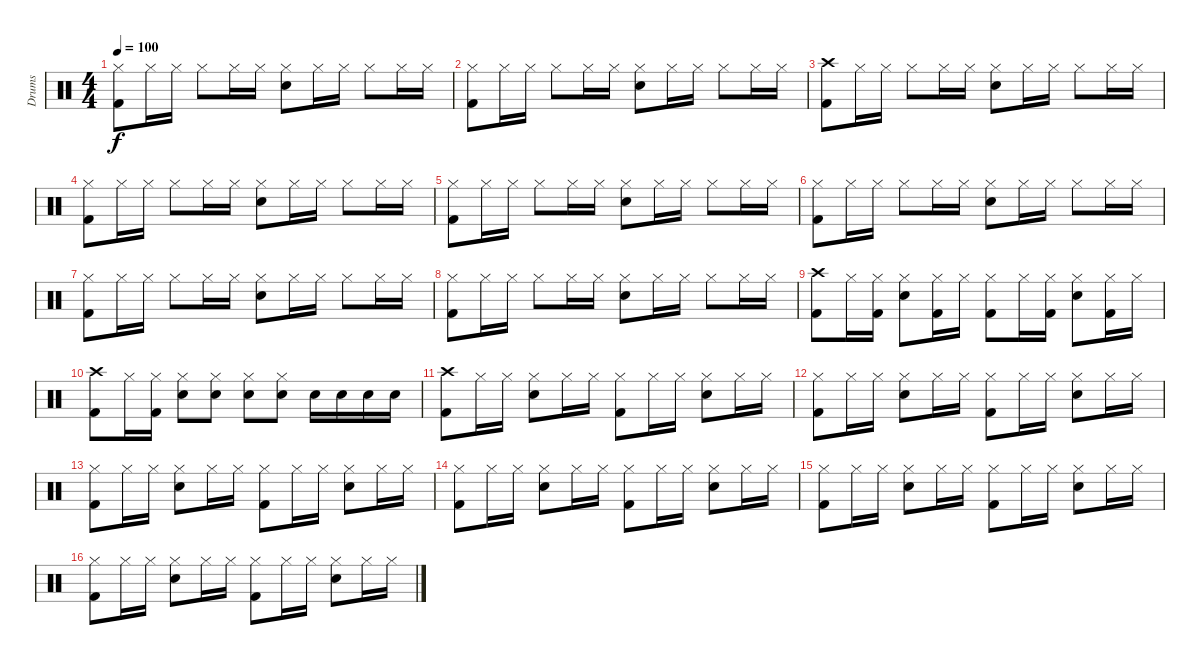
\track ("Drums" "Drums") {instrument percussion}
\staff {score}
\articulation defaults
\ts (4 4)
\tempo 100
\clef neutral
\ks c
("Hi-Hat (closed)" "Kick (hit) 2").8{dy f} "Hi-Hat (closed)".16 "Hi-Hat (closed)".16 "Hi-Hat (closed)".8 "Hi-Hat (closed)".16 "Hi-Hat (closed)".16 ("Hi-Hat (closed)" "Snare (hit) 2").8 "Hi-Hat (closed)".16 "Hi-Hat (closed)".16 "Hi-Hat (closed)".8 "Hi-Hat (closed)".16 "Hi-Hat (closed)".16 |
("Hi-Hat (closed)" "Kick (hit) 2").8 "Hi-Hat (closed)".16 "Hi-Hat (closed)".16 "Hi-Hat (closed)".8 "Hi-Hat (closed)".16 "Hi-Hat (closed)".16 ("Hi-Hat (closed)" "Snare (hit) 2").8 "Hi-Hat (closed)".16 "Hi-Hat (closed)".16 "Hi-Hat (closed)".8 "Hi-Hat (closed)".16 "Hi-Hat (closed)".16 |
("Crash high (hit)" "Kick (hit) 2").8 "Hi-Hat (closed)".16 "Hi-Hat (closed)".16 "Hi-Hat (closed)".8 "Hi-Hat (closed)".16 "Hi-Hat (closed)".16 ("Hi-Hat (closed)" "Snare (hit) 2").8 "Hi-Hat (closed)".16 "Hi-Hat (closed)".16 "Hi-Hat (closed)".8 "Hi-Hat (closed)".16 "Hi-Hat (closed)".16 |
("Hi-Hat (closed)" "Kick (hit) 2").8 "Hi-Hat (closed)".16 "Hi-Hat (closed)".16 "Hi-Hat (closed)".8 "Hi-Hat (closed)".16 "Hi-Hat (closed)".16 ("Hi-Hat (closed)" "Snare (hit) 2").8 "Hi-Hat (closed)".16 "Hi-Hat (closed)".16 "Hi-Hat (closed)".8 "Hi-Hat (closed)".16 "Hi-Hat (closed)".16 |
("Hi-Hat (closed)" "Kick (hit) 2").8 "Hi-Hat (closed)".16 "Hi-Hat (closed)".16 "Hi-Hat (closed)".8 "Hi-Hat (closed)".16 "Hi-Hat (closed)".16 ("Hi-Hat (closed)" "Snare (hit) 2").8 "Hi-Hat (closed)".16 "Hi-Hat (closed)".16 "Hi-Hat (closed)".8 "Hi-Hat (closed)".16 "Hi-Hat (closed)".16 |
("Hi-Hat (closed)" "Kick (hit) 2").8 "Hi-Hat (closed)".16 "Hi-Hat (closed)".16 "Hi-Hat (closed)".8 "Hi-Hat (closed)".16 "Hi-Hat (closed)".16 ("Hi-Hat (closed)" "Snare (hit) 2").8 "Hi-Hat (closed)".16 "Hi-Hat (closed)".16 "Hi-Hat (closed)".8 "Hi-Hat (closed)".16 "Hi-Hat (closed)".16 |
("Hi-Hat (closed)" "Kick (hit) 2").8 "Hi-Hat (closed)".16 "Hi-Hat (closed)".16 "Hi-Hat (closed)".8 "Hi-Hat (closed)".16 "Hi-Hat (closed)".16 ("Hi-Hat (closed)" "Snare (hit) 2").8 "Hi-Hat (closed)".16 "Hi-Hat (closed)".16 "Hi-Hat (closed)".8 "Hi-Hat (closed)".16 "Hi-Hat (closed)".16 |
("Hi-Hat (closed)" "Kick (hit) 2").8 "Hi-Hat (closed)".16 "Hi-Hat (closed)".16 "Hi-Hat (closed)".8 "Hi-Hat (closed)".16 "Hi-Hat (closed)".16 ("Hi-Hat (closed)" "Snare (hit) 2").8 "Hi-Hat (closed)".16 "Hi-Hat (closed)".16 "Hi-Hat (closed)".8 "Hi-Hat (closed)".16 "Hi-Hat (closed)".16 |
("Crash high (hit)" "Kick (hit) 2").8 "Hi-Hat (closed)".16 ("Hi-Hat (closed)" "Kick (hit) 2").16 ("Hi-Hat (closed)" "Snare (hit) 2").8 ("Hi-Hat (closed)" "Kick (hit) 2").16 "Hi-Hat (closed)".16 ("Hi-Hat (closed)" "Kick (hit) 2").8 "Hi-Hat (closed)".16 ("Hi-Hat (closed)" "Kick (hit) 2").16 ("Hi-Hat (closed)" "Snare (hit) 2").8 ("Hi-Hat (closed)" "Kick (hit) 2").16 "Hi-Hat (closed)".16 |
("Crash high (hit)" "Kick (hit) 2").8 "Hi-Hat (closed)".16 ("Hi-Hat (closed)" "Kick (hit) 2").16 ("Hi-Hat (closed)" "Snare (hit) 2").8 ("Hi-Hat (closed)" "Snare (hit) 2").8 ("Hi-Hat (closed)" "Snare (hit) 2").8 ("Hi-Hat (closed)" "Snare (hit) 2").8 "Snare (hit) 2".16 "Snare (hit) 2".16 "Snare (hit) 2".16 "Snare (hit) 2".16 |
("Crash high (hit)" "Kick (hit) 2").8 "Hi-Hat (closed)".16 "Hi-Hat (closed)".16 ("Hi-Hat (closed)" "Snare (hit) 2").8 "Hi-Hat (closed)".16 "Hi-Hat (closed)".16 ("Hi-Hat (closed)" "Kick (hit) 2").8 "Hi-Hat (closed)".16 "Hi-Hat (closed)".16 ("Hi-Hat (closed)" "Snare (hit) 2").8 "Hi-Hat (closed)".16 "Hi-Hat (closed)".16 |
("Hi-Hat (closed)" "Kick (hit) 2").8 "Hi-Hat (closed)".16 "Hi-Hat (closed)".16 ("Hi-Hat (closed)" "Snare (hit) 2").8 "Hi-Hat (closed)".16 "Hi-Hat (closed)".16 ("Hi-Hat (closed)" "Kick (hit) 2").8 "Hi-Hat (closed)".16 "Hi-Hat (closed)".16 ("Hi-Hat (closed)" "Snare (hit) 2").8 "Hi-Hat (closed)".16 "Hi-Hat (closed)".16 |
("Hi-Hat (closed)" "Kick (hit) 2").8 "Hi-Hat (closed)".16 "Hi-Hat (closed)".16 ("Hi-Hat (closed)" "Snare (hit) 2").8 "Hi-Hat (closed)".16 "Hi-Hat (closed)".16 ("Hi-Hat (closed)" "Kick (hit) 2").8 "Hi-Hat (closed)".16 "Hi-Hat (closed)".16 ("Hi-Hat (closed)" "Snare (hit) 2").8 "Hi-Hat (closed)".16 "Hi-Hat (closed)".16 |
("Hi-Hat (closed)" "Kick (hit) 2").8 "Hi-Hat (closed)".16 "Hi-Hat (closed)".16 ("Hi-Hat (closed)" "Snare (hit) 2").8 "Hi-Hat (closed)".16 "Hi-Hat (closed)".16 ("Hi-Hat (closed)" "Kick (hit) 2").8 "Hi-Hat (closed)".16 "Hi-Hat (closed)".16 ("Hi-Hat (closed)" "Snare (hit) 2").8 "Hi-Hat (closed)".16 "Hi-Hat (closed)".16 |
("Hi-Hat (closed)" "Kick (hit) 2").8 "Hi-Hat (closed)".16 "Hi-Hat (closed)".16 ("Hi-Hat (closed)" "Snare (hit) 2").8 "Hi-Hat (closed)".16 "Hi-Hat (closed)".16 ("Hi-Hat (closed)" "Kick (hit) 2").8 "Hi-Hat (closed)".16 "Hi-Hat (closed)".16 ("Hi-Hat (closed)" "Snare (hit) 2").8 "Hi-Hat (closed)".16 "Hi-Hat (closed)".16 |
("Hi-Hat (closed)" "Kick (hit) 2").8 "Hi-Hat (closed)".16 "Hi-Hat (closed)".16 ("Hi-Hat (closed)" "Snare (hit) 2").8 "Hi-Hat (closed)".16 "Hi-Hat (closed)".16 ("Hi-Hat (closed)" "Kick (hit) 2").8 "Hi-Hat (closed)".16 "Hi-Hat (closed)".16 ("Hi-Hat (closed)" "Snare (hit) 2").8 "Hi-Hat (closed)".16 "Hi-Hat (closed)".16
